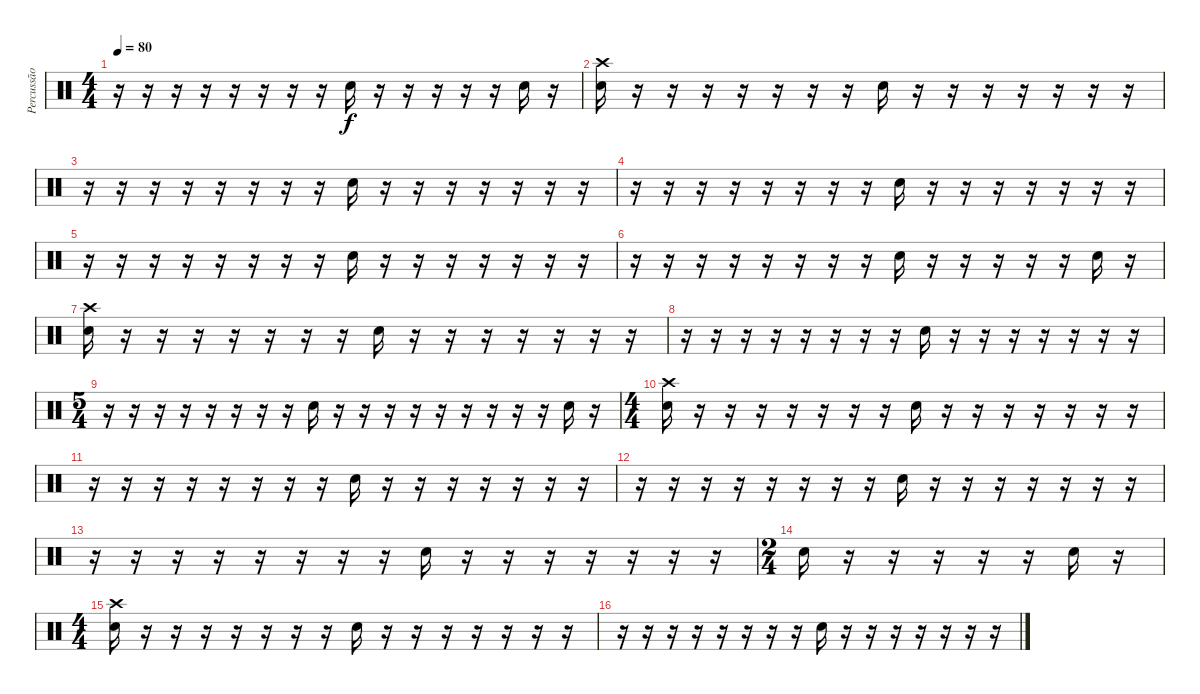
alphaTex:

\track ("Percussão" "Percussão") {instrument percussion}
\staff {score}
\articulation defaults
\ts (4 4)
\tempo 80
\clef neutral
\ks c
r.16{dy f} r.16 r.16 r.16 r.16 r.16 r.16 r.16 "Electric Snare (hit)".16 r.16 r.16 r.16 r.16 r.16 "Electric Snare (hit)".16 r.16 |
("Crash high (hit)" "Electric Snare (hit)").16 r.16 r.16 r.16 r.16 r.16 r.16 r.16 "Electric Snare (hit)".16 r.16 r.16 r.16 r.16 r.16 r.16 r.16 |
r.16 r.16 r.16 r.16 r.16 r.16 r.16 r.16 "Electric Snare (hit)".16 r.16 r.16 r.16 r.16 r.16 r.16 r.16 |
r.16 r.16 r.16 r.16 r.16 r.16 r.16 r.16 "Electric Snare (hit)".16 r.16 r.16 r.16 r.16 r.16 r.16 r.16 |
r.16 r.16 r.16 r.16 r.16 r.16 r.16 r.16 "Electric Snare (hit)".16 r.16 r.16 r.16 r.16 r.16 r.16 r.16 |
r.16 r.16 r.16 r.16 r.16 r.16 r.16 r.16 "Electric Snare (hit)".16 r.16 r.16 r.16 r.16 r.16 "Electric Snare (hit)".16 r.16 |
("Crash high (hit)" "Electric Snare (hit)").16 r.16 r.16 r.16 r.16 r.16 r.16 r.16 "Electric Snare (hit)".16 r.16 r.16 r.16 r.16 r.16 r.16 r.16 |
r.16 r.16 r.16 r.16 r.16 r.16 r.16 r.16 "Electric Snare (hit)".16 r.16 r.16 r.16 r.16 r.16 r.16 r.16 |
\ts (5 4)
r.16 r.16 r.16 r.16 r.16 r.16 r.16 r.16 "Electric Snare (hit)".16 r.16 r.16 r.16 r.16 r.16 r.16 r.16 r.16 r.16 "Electric Snare (hit)".16 r.16 |
\ts (4 4)
("Crash high (hit)" "Electric Snare (hit)").16 r.16 r.16 r.16 r.16 r.16 r.16 r.16 "Electric Snare (hit)".16 r.16 r.16 r.16 r.16 r.16 r.16 r.16 |
r.16 r.16 r.16 r.16 r.16 r.16 r.16 r.16 "Electric Snare (hit)".16 r.16 r.16 r.16 r.16 r.16 r.16 r.16 |
r.16 r.16 r.16 r.16 r.16 r.16 r.16 r.16 "Electric Snare (hit)".16 r.16 r.16 r.16 r.16 r.16 r.16 r.16 |
r.16 r.16 r.16 r.16 r.16 r.16 r.16 r.16 "Electric Snare (hit)".16 r.16 r.16 r.16 r.16 r.16 r.16 r.16 |
\ts (2 4)
"Electric Snare (hit)".16 r.16 r.16 r.16 r.16 r.16 "Electric Snare (hit)".16 r.16 |
\ts (4 4)
("Crash high (hit)" "Electric Snare (hit)").16 r.16 r.16 r.16 r.16 r.16 r.16 r.16 "Electric Snare (hit)".16 r.16 r.16 r.16 r.16 r.16 r.16 r.16 |
r.16 r.16 r.16 r.16 r.16 r.16 r.16 r.16 "Electric Snare (hit)".16 r.16 r.16 r.16 r.16 r.16 r.16 r.16
